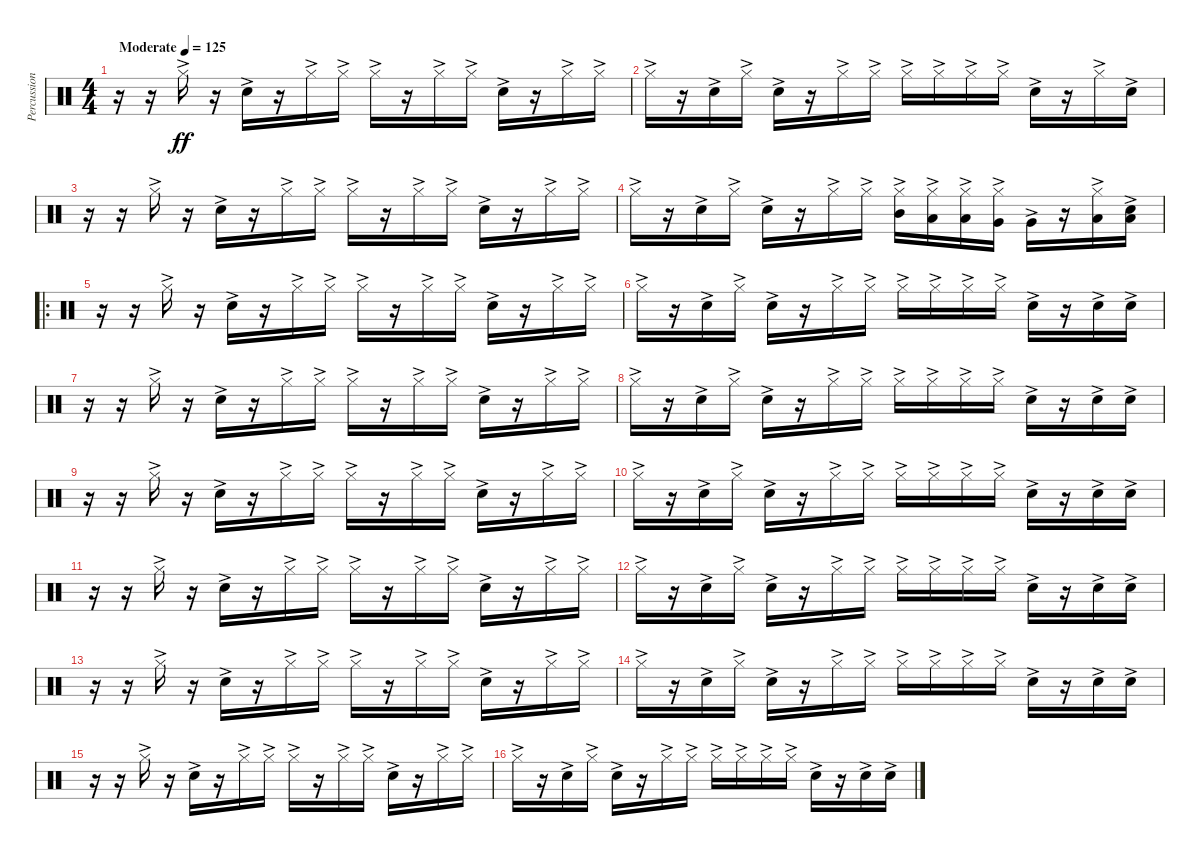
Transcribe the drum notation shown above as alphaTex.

\track ("Percussion" "Percussion") {instrument percussion}
\staff {score}
\articulation defaults
\ts (4 4)
\tempo (125 "Moderate")
\clef neutral
\ks c
r.16{dy ff} r.16 "Hi-Hat (closed)"{ac}.16 r.16 "Snare (hit) 2"{ac}.16 r.16 "Hi-Hat (closed)"{ac}.16 "Hi-Hat (closed)"{ac}.16 "Hi-Hat (closed)"{ac}.16 r.16 "Hi-Hat (closed)"{ac}.16 "Hi-Hat (closed)"{ac}.16 "Snare (hit) 2"{ac}.16 r.16 "Hi-Hat (closed)"{ac}.16 "Hi-Hat (closed)"{ac}.16 |
"Hi-Hat (closed)"{ac}.16 r.16 "Snare (hit) 2"{ac}.16 "Hi-Hat (closed)"{ac}.16 "Snare (hit) 2"{ac}.16 r.16 "Hi-Hat (closed)"{ac}.16 "Hi-Hat (closed)"{ac}.16 "Hi-Hat (closed)"{ac}.16 "Hi-Hat (closed)"{ac}.16 "Hi-Hat (closed)"{ac}.16 "Hi-Hat (closed)"{ac}.16 "Snare (hit) 2"{ac}.16 r.16 "Hi-Hat (closed)"{ac}.16 "Snare (hit) 2"{ac}.16 |
r.16 r.16 "Hi-Hat (closed)"{ac}.16 r.16 "Snare (hit) 2"{ac}.16 r.16 "Hi-Hat (closed)"{ac}.16 "Hi-Hat (closed)"{ac}.16 "Hi-Hat (closed)"{ac}.16 r.16 "Hi-Hat (closed)"{ac}.16 "Hi-Hat (closed)"{ac}.16 "Snare (hit) 2"{ac}.16 r.16 "Hi-Hat (closed)"{ac}.16 "Hi-Hat (closed)"{ac}.16 |
"Hi-Hat (closed)"{ac}.16 r.16 "Snare (hit) 2"{ac}.16 "Hi-Hat (closed)"{ac}.16 "Snare (hit) 2"{ac}.16 r.16 "Hi-Hat (closed)"{ac}.16 "Hi-Hat (closed)"{ac}.16 ("Hi-Hat (closed)"{ac} "Mid Tom (hit)"{ac}).16 ("Hi-Hat (closed)"{ac} "Low Tom (hit)"{ac}).16 ("Hi-Hat (closed)"{ac} "Low Tom (hit)"{ac}).16 ("Hi-Hat (closed)"{ac} "Very Low Tom (hit)"{ac}).16 "Very Low Tom (hit)"{ac}.16 r.16 ("Hi-Hat (closed)"{ac} "Low Floor Tom (hit)"{ac}).16 ("Snare (hit) 2"{ac} "Low Floor Tom (hit)"{ac}).16 |
\ro
r.16 r.16 "Hi-Hat (closed)"{ac}.16 r.16 "Snare (hit) 2"{ac}.16 r.16 "Hi-Hat (closed)"{ac}.16 "Hi-Hat (closed)"{ac}.16 "Hi-Hat (closed)"{ac}.16 r.16 "Hi-Hat (closed)"{ac}.16 "Hi-Hat (closed)"{ac}.16 "Snare (hit) 2"{ac}.16 r.16 "Hi-Hat (closed)"{ac}.16 "Hi-Hat (closed)"{ac}.16 |
"Hi-Hat (closed)"{ac}.16 r.16 "Snare (hit) 2"{ac}.16 "Hi-Hat (closed)"{ac}.16 "Snare (hit) 2"{ac}.16 r.16 "Hi-Hat (closed)"{ac}.16 "Hi-Hat (closed)"{ac}.16 "Hi-Hat (closed)"{ac}.16 "Hi-Hat (closed)"{ac}.16 "Hi-Hat (closed)"{ac}.16 "Hi-Hat (closed)"{ac}.16 "Snare (hit) 2"{ac}.16 r.16 "Snare (hit) 2"{ac}.16 "Snare (hit) 2"{ac}.16 |
r.16 r.16 "Hi-Hat (closed)"{ac}.16 r.16 "Snare (hit) 2"{ac}.16 r.16 "Hi-Hat (closed)"{ac}.16 "Hi-Hat (closed)"{ac}.16 "Hi-Hat (closed)"{ac}.16 r.16 "Hi-Hat (closed)"{ac}.16 "Hi-Hat (closed)"{ac}.16 "Snare (hit) 2"{ac}.16 r.16 "Hi-Hat (closed)"{ac}.16 "Hi-Hat (closed)"{ac}.16 |
"Hi-Hat (closed)"{ac}.16 r.16 "Snare (hit) 2"{ac}.16 "Hi-Hat (closed)"{ac}.16 "Snare (hit) 2"{ac}.16 r.16 "Hi-Hat (closed)"{ac}.16 "Hi-Hat (closed)"{ac}.16 "Hi-Hat (closed)"{ac}.16 "Hi-Hat (closed)"{ac}.16 "Hi-Hat (closed)"{ac}.16 "Hi-Hat (closed)"{ac}.16 "Snare (hit) 2"{ac}.16 r.16 "Snare (hit) 2"{ac}.16 "Snare (hit) 2"{ac}.16 |
r.16 r.16 "Hi-Hat (closed)"{ac}.16 r.16 "Snare (hit) 2"{ac}.16 r.16 "Hi-Hat (closed)"{ac}.16 "Hi-Hat (closed)"{ac}.16 "Hi-Hat (closed)"{ac}.16 r.16 "Hi-Hat (closed)"{ac}.16 "Hi-Hat (closed)"{ac}.16 "Snare (hit) 2"{ac}.16 r.16 "Hi-Hat (closed)"{ac}.16 "Hi-Hat (closed)"{ac}.16 |
"Hi-Hat (closed)"{ac}.16 r.16 "Snare (hit) 2"{ac}.16 "Hi-Hat (closed)"{ac}.16 "Snare (hit) 2"{ac}.16 r.16 "Hi-Hat (closed)"{ac}.16 "Hi-Hat (closed)"{ac}.16 "Hi-Hat (closed)"{ac}.16 "Hi-Hat (closed)"{ac}.16 "Hi-Hat (closed)"{ac}.16 "Hi-Hat (closed)"{ac}.16 "Snare (hit) 2"{ac}.16 r.16 "Snare (hit) 2"{ac}.16 "Snare (hit) 2"{ac}.16 |
r.16 r.16 "Hi-Hat (closed)"{ac}.16 r.16 "Snare (hit) 2"{ac}.16 r.16 "Hi-Hat (closed)"{ac}.16 "Hi-Hat (closed)"{ac}.16 "Hi-Hat (closed)"{ac}.16 r.16 "Hi-Hat (closed)"{ac}.16 "Hi-Hat (closed)"{ac}.16 "Snare (hit) 2"{ac}.16 r.16 "Hi-Hat (closed)"{ac}.16 "Hi-Hat (closed)"{ac}.16 |
"Hi-Hat (closed)"{ac}.16 r.16 "Snare (hit) 2"{ac}.16 "Hi-Hat (closed)"{ac}.16 "Snare (hit) 2"{ac}.16 r.16 "Hi-Hat (closed)"{ac}.16 "Hi-Hat (closed)"{ac}.16 "Hi-Hat (closed)"{ac}.16 "Hi-Hat (closed)"{ac}.16 "Hi-Hat (closed)"{ac}.16 "Hi-Hat (closed)"{ac}.16 "Snare (hit) 2"{ac}.16 r.16 "Snare (hit) 2"{ac}.16 "Snare (hit) 2"{ac}.16 |
r.16 r.16 "Hi-Hat (closed)"{ac}.16 r.16 "Snare (hit) 2"{ac}.16 r.16 "Hi-Hat (closed)"{ac}.16 "Hi-Hat (closed)"{ac}.16 "Hi-Hat (closed)"{ac}.16 r.16 "Hi-Hat (closed)"{ac}.16 "Hi-Hat (closed)"{ac}.16 "Snare (hit) 2"{ac}.16 r.16 "Hi-Hat (closed)"{ac}.16 "Hi-Hat (closed)"{ac}.16 |
"Hi-Hat (closed)"{ac}.16 r.16 "Snare (hit) 2"{ac}.16 "Hi-Hat (closed)"{ac}.16 "Snare (hit) 2"{ac}.16 r.16 "Hi-Hat (closed)"{ac}.16 "Hi-Hat (closed)"{ac}.16 "Hi-Hat (closed)"{ac}.16 "Hi-Hat (closed)"{ac}.16 "Hi-Hat (closed)"{ac}.16 "Hi-Hat (closed)"{ac}.16 "Snare (hit) 2"{ac}.16 r.16 "Snare (hit) 2"{ac}.16 "Snare (hit) 2"{ac}.16 |
r.16 r.16 "Hi-Hat (closed)"{ac}.16 r.16 "Snare (hit) 2"{ac}.16 r.16 "Hi-Hat (closed)"{ac}.16 "Hi-Hat (closed)"{ac}.16 "Hi-Hat (closed)"{ac}.16 r.16 "Hi-Hat (closed)"{ac}.16 "Hi-Hat (closed)"{ac}.16 "Snare (hit) 2"{ac}.16 r.16 "Hi-Hat (closed)"{ac}.16 "Hi-Hat (closed)"{ac}.16 |
"Hi-Hat (closed)"{ac}.16 r.16 "Snare (hit) 2"{ac}.16 "Hi-Hat (closed)"{ac}.16 "Snare (hit) 2"{ac}.16 r.16 "Hi-Hat (closed)"{ac}.16 "Hi-Hat (closed)"{ac}.16 "Hi-Hat (closed)"{ac}.16 "Hi-Hat (closed)"{ac}.16 "Hi-Hat (closed)"{ac}.16 "Hi-Hat (closed)"{ac}.16 "Snare (hit) 2"{ac}.16 r.16 "Snare (hit) 2"{ac}.16 "Snare (hit) 2"{ac}.16
